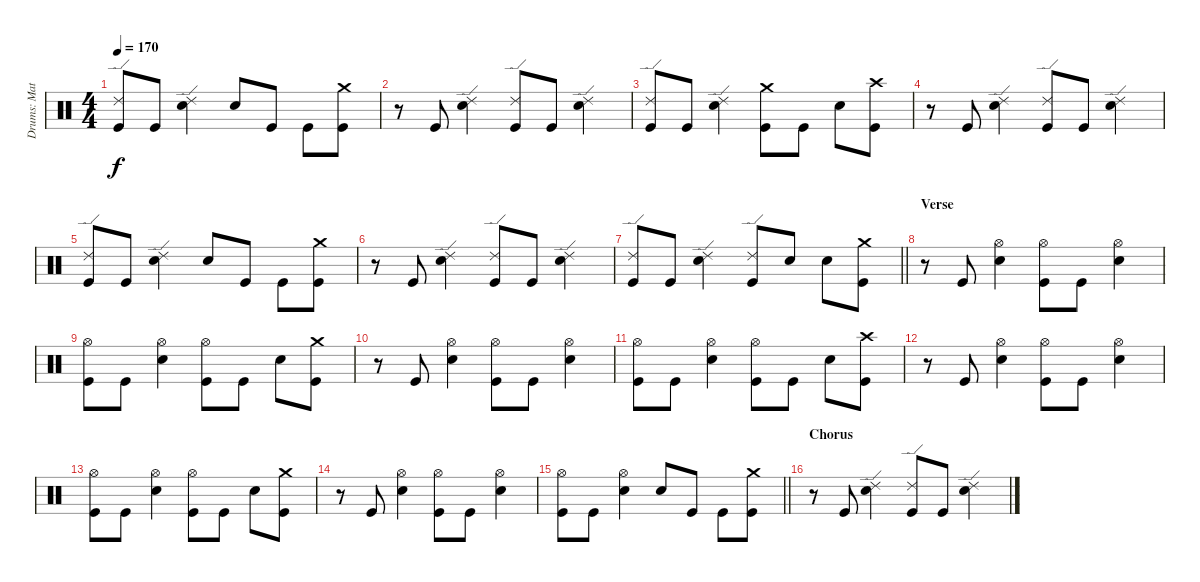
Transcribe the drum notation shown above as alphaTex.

\track ("Drums: Matt" "Drums: Mat") {instrument percussion}
\staff {score}
\articulation defaults
\ts (4 4)
\tempo 170
\clef neutral
\ks c
("Kick (hit)" "Ride (edge) 2").8{dy f} "Kick (hit)".8 ("Ride (edge) 2" "Snare (hit) 2").4 "Snare (hit) 2".8 "Kick (hit)".8 "Kick (hit)".8 ("Crash medium (hit)" "Kick (hit)").8 |
r.8 "Kick (hit)".8 ("Snare (hit) 2" "Ride (edge) 2").4 ("Ride (edge) 2" "Kick (hit)").8 "Kick (hit)".8 ("Snare (hit) 2" "Ride (edge) 2").4 |
("Ride (edge) 2" "Kick (hit)").8 "Kick (hit)".8 ("Ride (edge) 2" "Snare (hit) 2").4 ("Crash medium (hit)" "Kick (hit)").8 "Kick (hit)".8 "Snare (hit) 2".8 ("Crash high (hit)" "Kick (hit)").8 |
r.8 "Kick (hit)".8 ("Ride (edge) 2" "Snare (hit) 2").4 ("Ride (edge) 2" "Kick (hit)").8 "Kick (hit)".8 ("Ride (edge) 2" "Snare (hit) 2").4 |
("Kick (hit)" "Ride (edge) 2").8 "Kick (hit)".8 ("Ride (edge) 2" "Snare (hit) 2").4 "Snare (hit) 2".8 "Kick (hit)".8 "Kick (hit)".8 ("Crash medium (hit)" "Kick (hit)").8 |
r.8 "Kick (hit)".8 ("Ride (edge) 2" "Snare (hit) 2").4 ("Ride (edge) 2" "Kick (hit)").8 "Kick (hit)".8 ("Ride (edge) 2" "Snare (hit) 2").4 |
\barLineRight lightlight
("Ride (edge) 2" "Kick (hit)").8 "Kick (hit)".8 ("Ride (edge) 2" "Snare (hit) 2").4 ("Ride (edge) 2" "Kick (hit)").8 "Snare (hit) 2".8 "Snare (hit) 2".8 ("Kick (hit)" "Crash medium (hit)").8 |
\section ("" "Verse")
r.8 "Kick (hit)".8 ("Snare (hit) 2" "Hi-Hat (open)").4 ("Kick (hit)" "Hi-Hat (open)").8 "Kick (hit)".8 ("Hi-Hat (open)" "Snare (hit) 2").4 |
("Hi-Hat (open)" "Kick (hit)").8 "Kick (hit)".8 ("Snare (hit) 2" "Hi-Hat (open)").4 ("Hi-Hat (open)" "Kick (hit)").8 "Kick (hit)".8 "Snare (hit) 2".8 ("Kick (hit)" "Crash medium (hit)").8 |
r.8 "Kick (hit)".8 ("Hi-Hat (open)" "Snare (hit) 2").4 ("Hi-Hat (open)" "Kick (hit)").8 "Kick (hit)".8 ("Hi-Hat (open)" "Snare (hit) 2").4 |
("Kick (hit)" "Hi-Hat (open)").8 "Kick (hit)".8 ("Snare (hit) 2" "Hi-Hat (open)").4 ("Kick (hit)" "Hi-Hat (open)").8 "Kick (hit)".8 "Snare (hit) 2".8 ("Kick (hit)" "Crash high (hit)").8 |
r.8 "Kick (hit)".8 ("Hi-Hat (open)" "Snare (hit) 2").4 ("Kick (hit)" "Hi-Hat (open)").8 "Kick (hit)".8 ("Snare (hit) 2" "Hi-Hat (open)").4 |
("Hi-Hat (open)" "Kick (hit)").8 "Kick (hit)".8 ("Hi-Hat (open)" "Snare (hit) 2").4 ("Hi-Hat (open)" "Kick (hit)").8 "Kick (hit)".8 "Snare (hit) 2".8 ("Kick (hit)" "Crash medium (hit)").8 |
r.8 "Kick (hit)".8 ("Snare (hit) 2" "Hi-Hat (open)").4 ("Hi-Hat (open)" "Kick (hit)").8 "Kick (hit)".8 ("Snare (hit) 2" "Hi-Hat (open)").4 |
\barLineRight lightlight
("Kick (hit)" "Hi-Hat (open)").8 "Kick (hit)".8 ("Hi-Hat (open)" "Snare (hit) 2").4 "Snare (hit) 2".8 "Kick (hit)".8 "Kick (hit)".8 ("Crash medium (hit)" "Kick (hit)").8 |
\section ("" "Chorus")
r.8 "Kick (hit)".8 ("Ride (edge) 2" "Snare (hit) 2").4 ("Kick (hit)" "Ride (edge) 2").8 "Kick (hit)".8 ("Snare (hit) 2" "Ride (edge) 2").4
